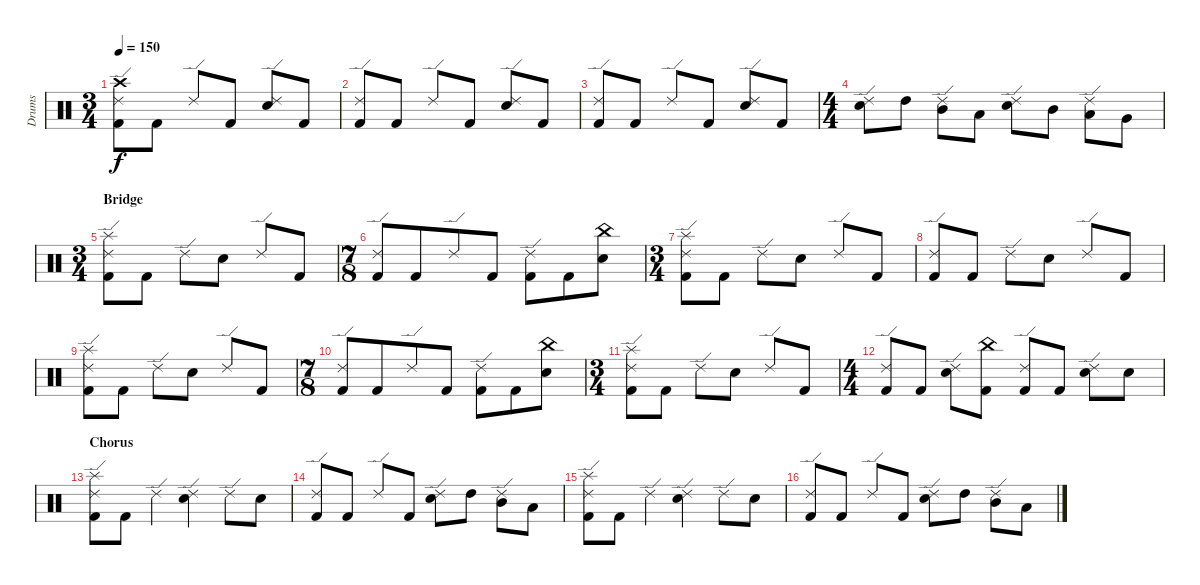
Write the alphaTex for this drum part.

\track ("Drums" "Drums") {instrument percussion}
\staff {score}
\articulation defaults
\ts (3 4)
\tempo 150
\clef neutral
\ks c
("Crash high (hit)" "Ride (edge) 2" "Kick (hit) 2").8{dy f} "Kick (hit) 2".8 "Ride (edge) 2".8 "Kick (hit) 2".8 ("Ride (edge) 2" "Electric Snare (hit)").8 "Kick (hit) 2".8 |
("Ride (edge) 2" "Kick (hit) 2").8 "Kick (hit) 2".8 "Ride (edge) 2".8 "Kick (hit) 2".8 ("Ride (edge) 2" "Electric Snare (hit)").8 "Kick (hit) 2".8 |
("Ride (edge) 2" "Kick (hit) 2").8 "Kick (hit) 2".8 "Ride (edge) 2".8 "Kick (hit) 2".8 ("Ride (edge) 2" "Electric Snare (hit)").8 "Kick (hit) 2".8 |
\ts (4 4)
("Ride (edge) 2" "Electric Snare (hit)").8 "High Tom (hit)".8 ("Ride (edge) 2" "Mid Tom (hit)").8 "Low Tom (hit)".8 ("Ride (edge) 2" "Electric Snare (hit)").8 "Mid Tom (hit)".8 ("Ride (edge) 2" "Low Tom (hit)").8 "Very Low Tom (hit)".8 |
\ts (3 4)
\section ("" "Bridge")
("Splash (hit)" "Ride (edge) 2" "Kick (hit) 2").8 "Kick (hit) 2".8 "Ride (edge) 2".8 "Electric Snare (hit)".8 "Ride (edge) 2".8 "Kick (hit) 2".8 |
\ts (7 8)
("Ride (edge) 2" "Kick (hit) 2").8 "Kick (hit) 2".8 "Ride (edge) 2".8 "Kick (hit) 2".8 ("Ride (edge) 2" "Kick (hit) 2").8 "Kick (hit) 2".8 ("China (hit)" "Electric Snare (hit)").8 |
\ts (3 4)
("Splash (hit)" "Ride (edge) 2" "Kick (hit) 2").8 "Kick (hit) 2".8 "Ride (edge) 2".8 "Electric Snare (hit)".8 "Ride (edge) 2".8 "Kick (hit) 2".8 |
("Ride (edge) 2" "Kick (hit) 2").8 "Kick (hit) 2".8 "Ride (edge) 2".8 "Electric Snare (hit)".8 "Ride (edge) 2".8 "Kick (hit) 2".8 |
("Splash (hit)" "Ride (edge) 2" "Kick (hit) 2").8 "Kick (hit) 2".8 "Ride (edge) 2".8 "Electric Snare (hit)".8 "Ride (edge) 2".8 "Kick (hit) 2".8 |
\ts (7 8)
("Ride (edge) 2" "Kick (hit) 2").8 "Kick (hit) 2".8 "Ride (edge) 2".8 "Kick (hit) 2".8 ("Ride (edge) 2" "Kick (hit) 2").8 "Kick (hit) 2".8 ("China (hit)" "Electric Snare (hit)").8 |
\ts (3 4)
("Splash (hit)" "Ride (edge) 2" "Kick (hit) 2").8 "Kick (hit) 2".8 "Ride (edge) 2".8 "Electric Snare (hit)".8 "Ride (edge) 2".8 "Kick (hit) 2".8 |
\ts (4 4)
("Ride (edge) 2" "Kick (hit) 2").8 "Kick (hit) 2".8 ("Ride (edge) 2" "Electric Snare (hit)").8 ("China (hit)" "Kick (hit) 2").8 ("Ride (edge) 2" "Kick (hit) 2").8 "Kick (hit) 2".8 ("Ride (edge) 2" "Electric Snare (hit)").8 "Electric Snare (hit)".8 |
\section ("" "Chorus")
("Splash (hit)" "Ride (edge) 2" "Kick (hit) 2").8 "Kick (hit) 2".8 "Ride (edge) 2".4 ("Ride (edge) 2" "Electric Snare (hit)").4 "Ride (edge) 2".8 "Electric Snare (hit)".8 |
("Ride (edge) 2" "Kick (hit) 2").8 "Kick (hit) 2".8 "Ride (edge) 2".8 "Kick (hit) 2".8 ("Ride (edge) 2" "Electric Snare (hit)").8 "High Tom (hit)".8 ("Ride (edge) 2" "Mid Tom (hit)").8 "Low Tom (hit)".8 |
("Splash (hit)" "Ride (edge) 2" "Kick (hit) 2").8 "Kick (hit) 2".8 "Ride (edge) 2".4 ("Ride (edge) 2" "Electric Snare (hit)").4 "Ride (edge) 2".8 "Electric Snare (hit)".8 |
("Ride (edge) 2" "Kick (hit) 2").8 "Kick (hit) 2".8 "Ride (edge) 2".8 "Kick (hit) 2".8 ("Ride (edge) 2" "Electric Snare (hit)").8 "High Tom (hit)".8 ("Ride (edge) 2" "Mid Tom (hit)").8 "Low Tom (hit)".8
